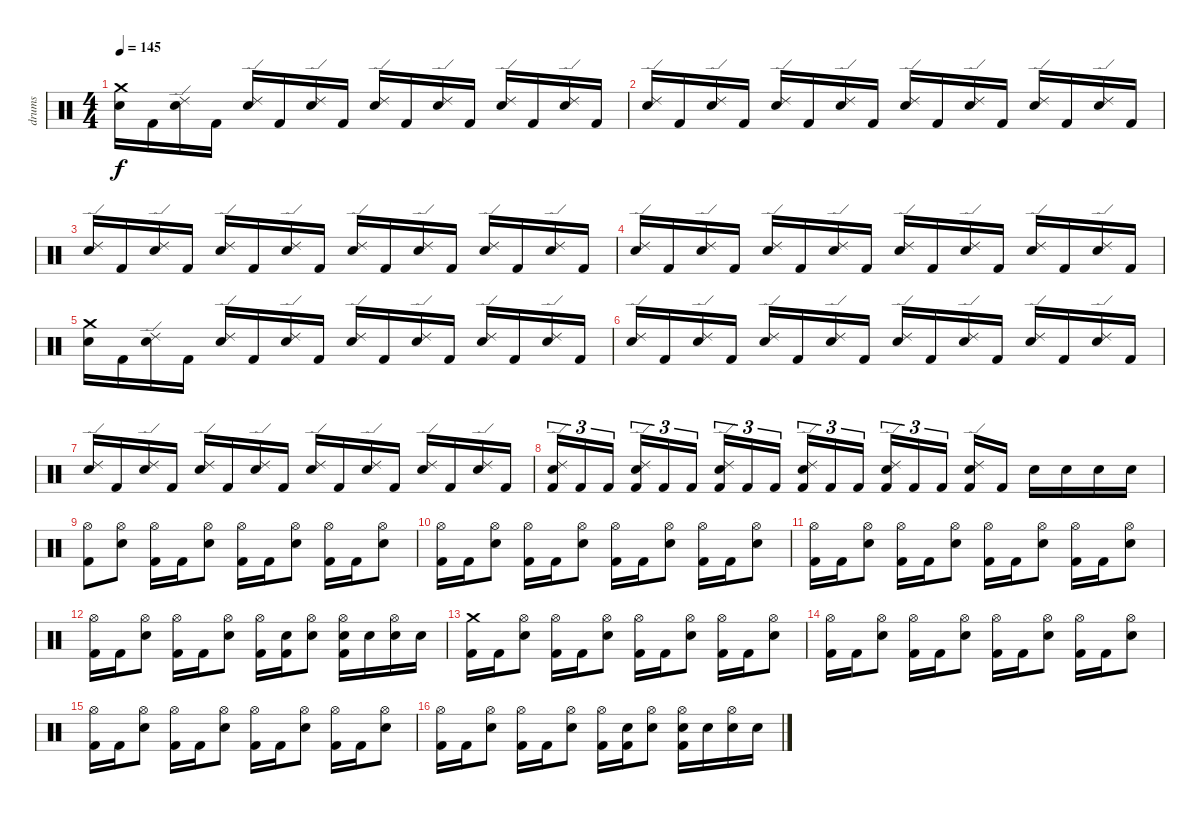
\track ("drums" "drums") {instrument percussion}
\staff {score}
\articulation defaults
\ts (4 4)
\tempo 145
\clef neutral
\ks c
("Crash medium (hit)" "Electric Snare (hit)").16{dy f} "Kick (hit) 2".16 ("Ride (edge) 2" "Electric Snare (hit)").16 "Kick (hit) 2".16 ("Ride (edge) 2" "Electric Snare (hit)").16 "Kick (hit) 2".16 ("Ride (edge) 2" "Electric Snare (hit)").16 "Kick (hit) 2".16 ("Ride (edge) 2" "Electric Snare (hit)").16 "Kick (hit) 2".16 ("Ride (edge) 2" "Electric Snare (hit)").16 "Kick (hit) 2".16 ("Ride (edge) 2" "Electric Snare (hit)").16 "Kick (hit) 2".16 ("Ride (edge) 2" "Electric Snare (hit)").16 "Kick (hit) 2".16 |
("Ride (edge) 2" "Electric Snare (hit)").16 "Kick (hit) 2".16 ("Ride (edge) 2" "Electric Snare (hit)").16 "Kick (hit) 2".16 ("Ride (edge) 2" "Electric Snare (hit)").16 "Kick (hit) 2".16 ("Ride (edge) 2" "Electric Snare (hit)").16 "Kick (hit) 2".16 ("Ride (edge) 2" "Electric Snare (hit)").16 "Kick (hit) 2".16 ("Ride (edge) 2" "Electric Snare (hit)").16 "Kick (hit) 2".16 ("Ride (edge) 2" "Electric Snare (hit)").16 "Kick (hit) 2".16 ("Ride (edge) 2" "Electric Snare (hit)").16 "Kick (hit) 2".16 |
("Ride (edge) 2" "Electric Snare (hit)").16 "Kick (hit) 2".16 ("Ride (edge) 2" "Electric Snare (hit)").16 "Kick (hit) 2".16 ("Ride (edge) 2" "Electric Snare (hit)").16 "Kick (hit) 2".16 ("Ride (edge) 2" "Electric Snare (hit)").16 "Kick (hit) 2".16 ("Ride (edge) 2" "Electric Snare (hit)").16 "Kick (hit) 2".16 ("Ride (edge) 2" "Electric Snare (hit)").16 "Kick (hit) 2".16 ("Ride (edge) 2" "Electric Snare (hit)").16 "Kick (hit) 2".16 ("Ride (edge) 2" "Electric Snare (hit)").16 "Kick (hit) 2".16 |
("Ride (edge) 2" "Electric Snare (hit)").16 "Kick (hit) 2".16 ("Ride (edge) 2" "Electric Snare (hit)").16 "Kick (hit) 2".16 ("Ride (edge) 2" "Electric Snare (hit)").16 "Kick (hit) 2".16 ("Ride (edge) 2" "Electric Snare (hit)").16 "Kick (hit) 2".16 ("Ride (edge) 2" "Electric Snare (hit)").16 "Kick (hit) 2".16 ("Ride (edge) 2" "Electric Snare (hit)").16 "Kick (hit) 2".16 ("Ride (edge) 2" "Electric Snare (hit)").16 "Kick (hit) 2".16 ("Ride (edge) 2" "Electric Snare (hit)").16 "Kick (hit) 2".16 |
("Crash medium (hit)" "Electric Snare (hit)").16 "Kick (hit) 2".16 ("Ride (edge) 2" "Electric Snare (hit)").16 "Kick (hit) 2".16 ("Ride (edge) 2" "Electric Snare (hit)").16 "Kick (hit) 2".16 ("Ride (edge) 2" "Electric Snare (hit)").16 "Kick (hit) 2".16 ("Ride (edge) 2" "Electric Snare (hit)").16 "Kick (hit) 2".16 ("Ride (edge) 2" "Electric Snare (hit)").16 "Kick (hit) 2".16 ("Ride (edge) 2" "Electric Snare (hit)").16 "Kick (hit) 2".16 ("Ride (edge) 2" "Electric Snare (hit)").16 "Kick (hit) 2".16 |
("Ride (edge) 2" "Electric Snare (hit)").16 "Kick (hit) 2".16 ("Ride (edge) 2" "Electric Snare (hit)").16 "Kick (hit) 2".16 ("Ride (edge) 2" "Electric Snare (hit)").16 "Kick (hit) 2".16 ("Ride (edge) 2" "Electric Snare (hit)").16 "Kick (hit) 2".16 ("Ride (edge) 2" "Electric Snare (hit)").16 "Kick (hit) 2".16 ("Ride (edge) 2" "Electric Snare (hit)").16 "Kick (hit) 2".16 ("Ride (edge) 2" "Electric Snare (hit)").16 "Kick (hit) 2".16 ("Ride (edge) 2" "Electric Snare (hit)").16 "Kick (hit) 2".16 |
("Ride (edge) 2" "Electric Snare (hit)").16 "Kick (hit) 2".16 ("Ride (edge) 2" "Electric Snare (hit)").16 "Kick (hit) 2".16 ("Ride (edge) 2" "Electric Snare (hit)").16 "Kick (hit) 2".16 ("Ride (edge) 2" "Electric Snare (hit)").16 "Kick (hit) 2".16 ("Ride (edge) 2" "Electric Snare (hit)").16 "Kick (hit) 2".16 ("Ride (edge) 2" "Electric Snare (hit)").16 "Kick (hit) 2".16 ("Ride (edge) 2" "Electric Snare (hit)").16 "Kick (hit) 2".16 ("Ride (edge) 2" "Electric Snare (hit)").16 "Kick (hit) 2".16 |
("Ride (edge) 2" "Electric Snare (hit)" "Kick (hit) 2").16{tu (3 2)} "Kick (hit) 2".16{tu (3 2)} "Kick (hit) 2".16{tu (3 2)} ("Ride (edge) 2" "Electric Snare (hit)" "Kick (hit) 2").16{tu (3 2)} "Kick (hit) 2".16{tu (3 2)} "Kick (hit) 2".16{tu (3 2)} ("Ride (edge) 2" "Electric Snare (hit)" "Kick (hit) 2").16{tu (3 2)} "Kick (hit) 2".16{tu (3 2)} "Kick (hit) 2".16{tu (3 2)} ("Ride (edge) 2" "Electric Snare (hit)" "Kick (hit) 2").16{tu (3 2)} "Kick (hit) 2".16{tu (3 2)} "Kick (hit) 2".16{tu (3 2)} ("Ride (edge) 2" "Electric Snare (hit)" "Kick (hit) 2").16{tu (3 2)} "Kick (hit) 2".16{tu (3 2)} "Kick (hit) 2".16{tu (3 2)} ("Ride (edge) 2" "Electric Snare (hit)" "Kick (hit) 2").16 "Kick (hit) 2".16 "Electric Snare (hit)".16 "Electric Snare (hit)".16 "Electric Snare (hit)".16 "Electric Snare (hit)".16 |
("Hi-Hat (open)" "Kick (hit) 2").8 ("Hi-Hat (open)" "Electric Snare (hit)").8 ("Hi-Hat (open)" "Kick (hit) 2").16 "Kick (hit) 2".16 ("Hi-Hat (open)" "Electric Snare (hit)").8 ("Hi-Hat (open)" "Kick (hit) 2").16 "Kick (hit) 2".16 ("Hi-Hat (open)" "Electric Snare (hit)").8 ("Hi-Hat (open)" "Kick (hit) 2").16 "Kick (hit) 2".16 ("Hi-Hat (open)" "Electric Snare (hit)").8 |
("Hi-Hat (open)" "Kick (hit) 2").16 "Kick (hit) 2".16 ("Hi-Hat (open)" "Electric Snare (hit)").8 ("Hi-Hat (open)" "Kick (hit) 2").16 "Kick (hit) 2".16 ("Hi-Hat (open)" "Electric Snare (hit)").8 ("Hi-Hat (open)" "Kick (hit) 2").16 "Kick (hit) 2".16 ("Hi-Hat (open)" "Electric Snare (hit)").8 ("Hi-Hat (open)" "Kick (hit) 2").16 "Kick (hit) 2".16 ("Hi-Hat (open)" "Electric Snare (hit)").8 |
("Hi-Hat (open)" "Kick (hit) 2").16 "Kick (hit) 2".16 ("Hi-Hat (open)" "Electric Snare (hit)").8 ("Hi-Hat (open)" "Kick (hit) 2").16 "Kick (hit) 2".16 ("Hi-Hat (open)" "Electric Snare (hit)").8 ("Hi-Hat (open)" "Kick (hit) 2").16 "Kick (hit) 2".16 ("Hi-Hat (open)" "Electric Snare (hit)").8 ("Hi-Hat (open)" "Kick (hit) 2").16 "Kick (hit) 2".16 ("Hi-Hat (open)" "Electric Snare (hit)").8 |
("Hi-Hat (open)" "Kick (hit) 2").16 "Kick (hit) 2".16 ("Hi-Hat (open)" "Electric Snare (hit)").8 ("Hi-Hat (open)" "Kick (hit) 2").16 "Kick (hit) 2".16 ("Hi-Hat (open)" "Electric Snare (hit)").8 ("Hi-Hat (open)" "Kick (hit) 2").16 ("Electric Snare (hit)" "Kick (hit) 2").16 ("Hi-Hat (open)" "Electric Snare (hit)").8 ("Hi-Hat (open)" "Electric Snare (hit)" "Kick (hit) 2").16 "Electric Snare (hit)".16 ("Hi-Hat (open)" "Electric Snare (hit)").16 "Electric Snare (hit)".16 |
("Crash medium (hit)" "Kick (hit) 2").16 "Kick (hit) 2".16 ("Hi-Hat (open)" "Electric Snare (hit)").8 ("Hi-Hat (open)" "Kick (hit) 2").16 "Kick (hit) 2".16 ("Hi-Hat (open)" "Electric Snare (hit)").8 ("Hi-Hat (open)" "Kick (hit) 2").16 "Kick (hit) 2".16 ("Hi-Hat (open)" "Electric Snare (hit)").8 ("Hi-Hat (open)" "Kick (hit) 2").16 "Kick (hit) 2".16 ("Hi-Hat (open)" "Electric Snare (hit)").8 |
("Hi-Hat (open)" "Kick (hit) 2").16 "Kick (hit) 2".16 ("Hi-Hat (open)" "Electric Snare (hit)").8 ("Hi-Hat (open)" "Kick (hit) 2").16 "Kick (hit) 2".16 ("Hi-Hat (open)" "Electric Snare (hit)").8 ("Hi-Hat (open)" "Kick (hit) 2").16 "Kick (hit) 2".16 ("Hi-Hat (open)" "Electric Snare (hit)").8 ("Hi-Hat (open)" "Kick (hit) 2").16 "Kick (hit) 2".16 ("Hi-Hat (open)" "Electric Snare (hit)").8 |
("Hi-Hat (open)" "Kick (hit) 2").16 "Kick (hit) 2".16 ("Hi-Hat (open)" "Electric Snare (hit)").8 ("Hi-Hat (open)" "Kick (hit) 2").16 "Kick (hit) 2".16 ("Hi-Hat (open)" "Electric Snare (hit)").8 ("Hi-Hat (open)" "Kick (hit) 2").16 "Kick (hit) 2".16 ("Hi-Hat (open)" "Electric Snare (hit)").8 ("Hi-Hat (open)" "Kick (hit) 2").16 "Kick (hit) 2".16 ("Hi-Hat (open)" "Electric Snare (hit)").8 |
("Hi-Hat (open)" "Kick (hit) 2").16 "Kick (hit) 2".16 ("Hi-Hat (open)" "Electric Snare (hit)").8 ("Hi-Hat (open)" "Kick (hit) 2").16 "Kick (hit) 2".16 ("Hi-Hat (open)" "Electric Snare (hit)").8 ("Hi-Hat (open)" "Kick (hit) 2").16 ("Electric Snare (hit)" "Kick (hit) 2").16 ("Hi-Hat (open)" "Electric Snare (hit)").8 ("Hi-Hat (open)" "Electric Snare (hit)" "Kick (hit) 2").16 "Electric Snare (hit)".16 ("Hi-Hat (open)" "Electric Snare (hit)").16 "Electric Snare (hit)".16
